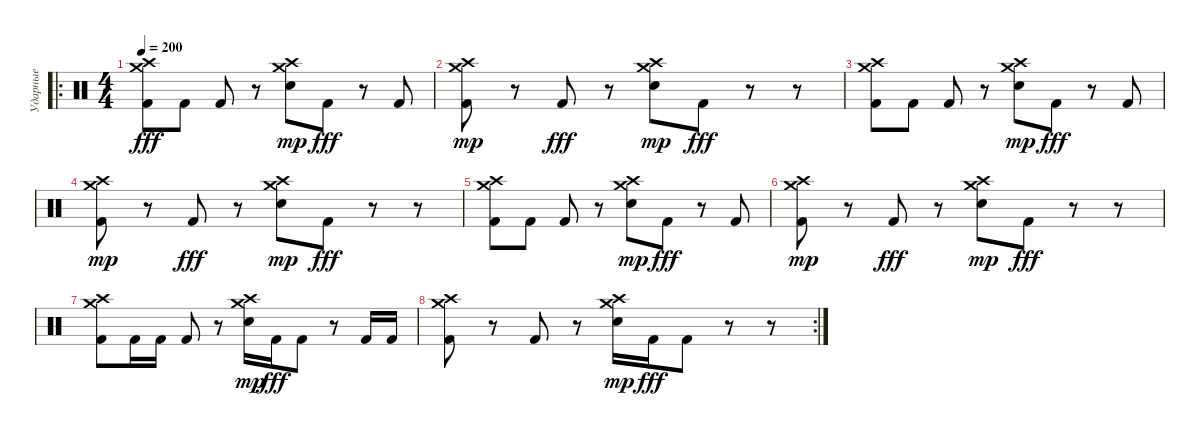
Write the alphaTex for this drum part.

\track ("Ударные" "Ударные") {instrument percussion}
\staff {score}
\articulation defaults
\ro
\ts (4 4)
\tempo 200
\clef neutral
\ks c
("Crash medium (hit)" "Crash high (hit)" "Kick (hit) 2").8{dy fff} "Kick (hit) 2".8 "Kick (hit) 2".8 r.8 ("Crash medium (hit)" "Crash high (hit)" "Electric Snare (hit)").8{dy mp} "Kick (hit) 2".8{dy fff} r.8 "Kick (hit) 2".8 |
("Crash medium (hit)" "Crash high (hit)" "Kick (hit) 2").8{dy mp} r.8 "Kick (hit) 2".8{dy fff} r.8 ("Crash medium (hit)" "Crash high (hit)" "Electric Snare (hit)").8{dy mp} "Kick (hit) 2".8{dy fff} r.8 r.8 |
("Crash medium (hit)" "Crash high (hit)" "Kick (hit) 2").8 "Kick (hit) 2".8 "Kick (hit) 2".8 r.8 ("Crash medium (hit)" "Crash high (hit)" "Electric Snare (hit)").8{dy mp} "Kick (hit) 2".8{dy fff} r.8 "Kick (hit) 2".8 |
("Crash medium (hit)" "Crash high (hit)" "Kick (hit) 2").8{dy mp} r.8 "Kick (hit) 2".8{dy fff} r.8 ("Crash medium (hit)" "Crash high (hit)" "Electric Snare (hit)").8{dy mp} "Kick (hit) 2".8{dy fff} r.8 r.8 |
("Crash medium (hit)" "Crash high (hit)" "Kick (hit) 2").8 "Kick (hit) 2".8 "Kick (hit) 2".8 r.8 ("Crash medium (hit)" "Crash high (hit)" "Electric Snare (hit)").8{dy mp} "Kick (hit) 2".8{dy fff} r.8 "Kick (hit) 2".8 |
("Crash medium (hit)" "Crash high (hit)" "Kick (hit) 2").8{dy mp} r.8 "Kick (hit) 2".8{dy fff} r.8 ("Crash medium (hit)" "Crash high (hit)" "Electric Snare (hit)").8{dy mp} "Kick (hit) 2".8{dy fff} r.8 r.8 |
("Crash medium (hit)" "Crash high (hit)" "Kick (hit) 2").8 "Kick (hit) 2".16 "Kick (hit) 2".16 "Kick (hit) 2".8 r.8 ("Crash medium (hit)" "Crash high (hit)" "Electric Snare (hit)").16{dy mp} "Kick (hit) 2".16{dy fff} "Kick (hit) 2".8 r.8 "Kick (hit) 2".16 "Kick (hit) 2".16 |
\rc 2
("Crash medium (hit)" "Crash high (hit)" "Kick (hit) 2").8 r.8 "Kick (hit) 2".8 r.8 ("Crash medium (hit)" "Crash high (hit)" "Electric Snare (hit)").16{dy mp} "Kick (hit) 2".16{dy fff} "Kick (hit) 2".8 r.8 r.8
